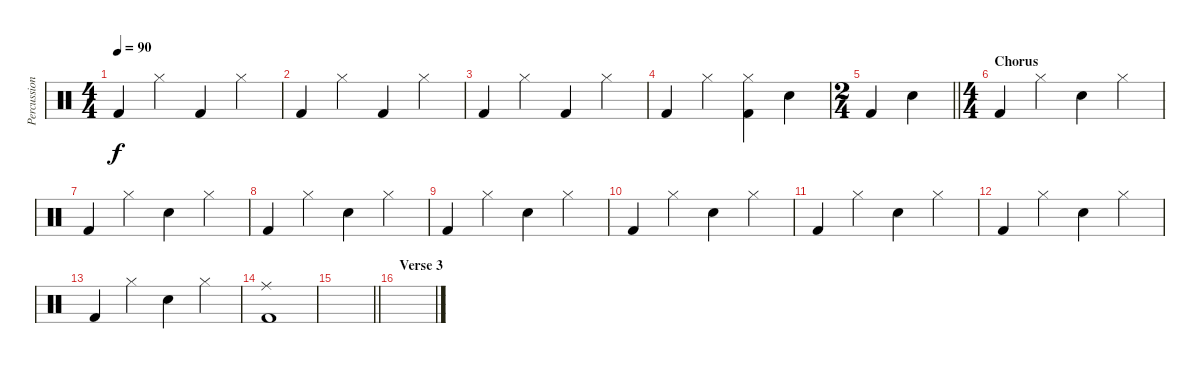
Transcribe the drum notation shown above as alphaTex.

\track ("Percussion" "Percussion") {instrument percussion}
\staff {score}
\articulation defaults
\ts (4 4)
\tempo 90
\clef neutral
\ks c "Kick (hit) 2".4{dy f} "Hi-Hat (closed)".4 "Kick (hit) 2".4 "Hi-Hat (closed)".4
|
"Kick (hit) 2".4 "Hi-Hat (closed)".4 "Kick (hit) 2".4 "Hi-Hat (closed)".4 |
"Kick (hit) 2".4 "Hi-Hat (closed)".4 "Kick (hit) 2".4 "Hi-Hat (closed)".4 |
"Kick (hit) 2".4 "Hi-Hat (closed)".4 ("Hi-Hat (closed)" "Kick (hit) 2").4 "Snare (hit) 2".4 |
\ts (2 4)
\barLineRight lightlight "Kick (hit) 2".4 "Snare (hit) 2".4
|
\ts (4 4)
\section ("" "Chorus")
"Kick (hit) 2".4 "Hi-Hat (closed)".4 "Snare (hit) 2".4 "Hi-Hat (closed)".4 |
"Kick (hit) 2".4 "Hi-Hat (closed)".4 "Snare (hit) 2".4 "Hi-Hat (closed)".4 |
"Kick (hit) 2".4 "Hi-Hat (closed)".4 "Snare (hit) 2".4 "Hi-Hat (closed)".4 |
"Kick (hit) 2".4 "Hi-Hat (closed)".4 "Snare (hit) 2".4 "Hi-Hat (closed)".4 |
"Kick (hit) 2".4 "Hi-Hat (closed)".4 "Snare (hit) 2".4 "Hi-Hat (closed)".4 |
"Kick (hit) 2".4 "Hi-Hat (closed)".4 "Snare (hit) 2".4 "Hi-Hat (closed)".4 |
"Kick (hit) 2".4 "Hi-Hat (closed)".4 "Snare (hit) 2".4 "Hi-Hat (closed)".4 |
"Kick (hit) 2".4 "Hi-Hat (closed)".4 "Snare (hit) 2".4 "Hi-Hat (closed)".4 |
("Ride (middle)" "Kick (hit) 2").1 |
\barLineRight lightlight
|
\section ("" "Verse 3")
